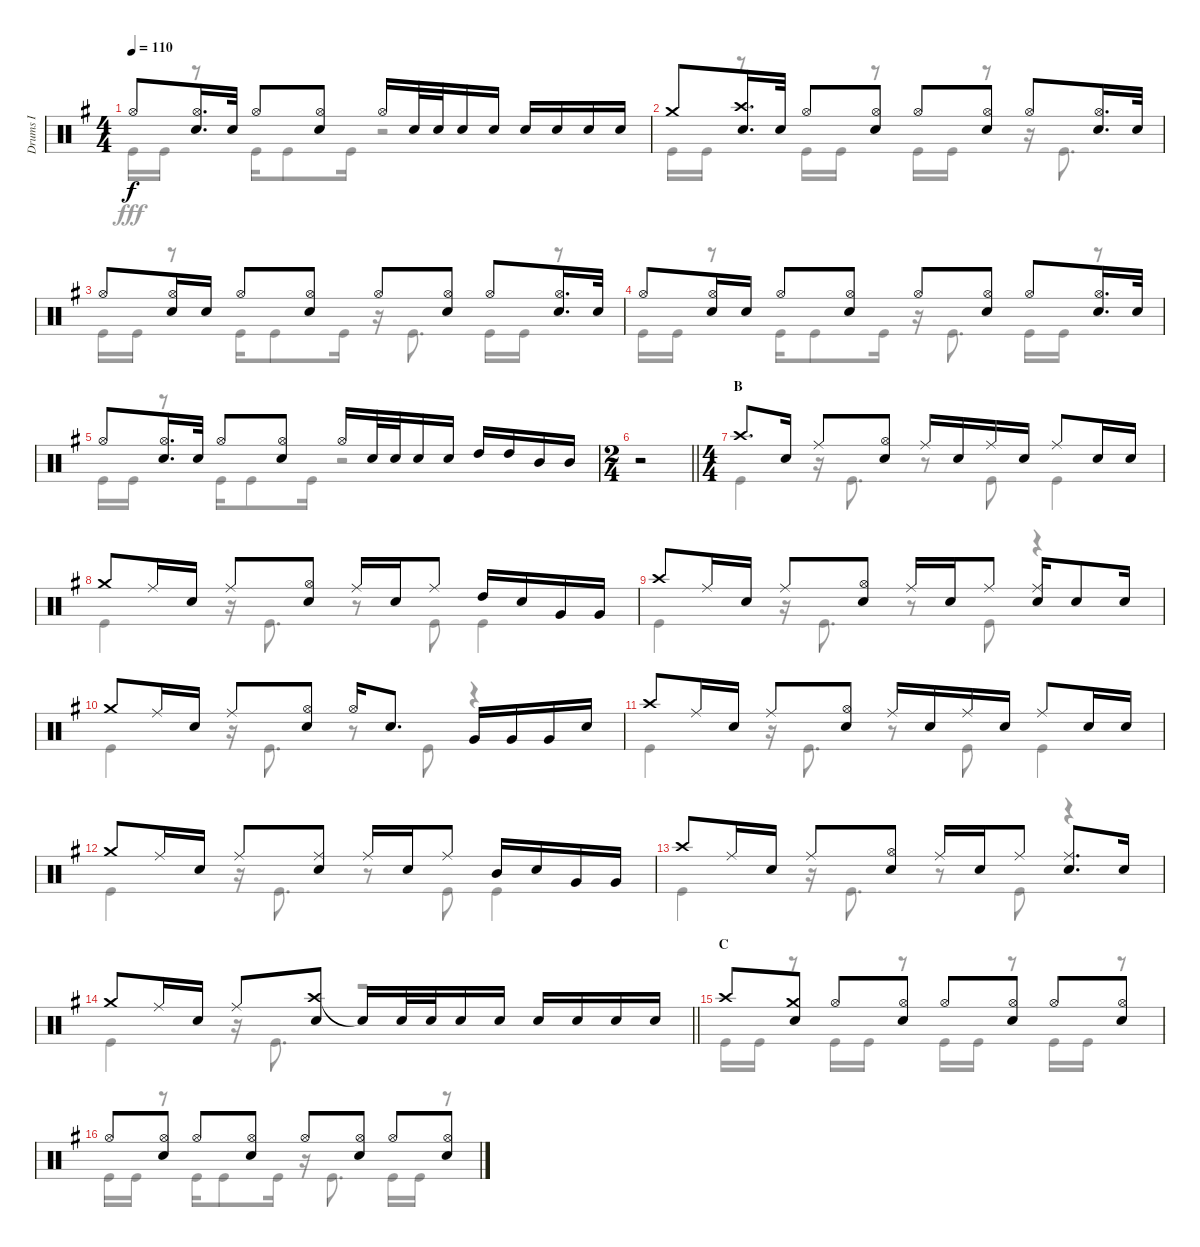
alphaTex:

\track ("Drums I" "Drums I") {instrument percussion}
\staff {score}
\articulation defaults
\voice
\ts (4 4)
\tempo 110
\clef neutral
\ks g "Hi-Hat (open)".8{dy f}
("Hi-Hat (open)" "Snare (hit) 2").16{d} "Snare (hit) 2".32 "Hi-Hat (open)".8 ("Hi-Hat (open)" "Snare (hit) 2").8 "Hi-Hat (open)".16 "Snare (hit) 2".32 "Snare (hit) 2".32 "Snare (hit) 2".16 "Snare (hit) 2".16 "Snare (hit) 2".16 "Snare (hit) 2".16 "Snare (hit) 2".16 "Snare (hit) 2".16 |
"Crash medium (hit)".8 ("Crash high (hit)" "Snare (hit) 2").16{d} "Snare (hit) 2".32 "Hi-Hat (open)".8 ("Hi-Hat (open)" "Snare (hit) 2").8 "Hi-Hat (open)".8 ("Hi-Hat (open)" "Snare (hit) 2").8 "Hi-Hat (open)".8 ("Hi-Hat (open)" "Snare (hit) 2").16{d} "Snare (hit) 2".32 |
"Hi-Hat (open)".8 ("Hi-Hat (open)" "Snare (hit) 2").16 "Snare (hit) 2".16 "Hi-Hat (open)".8 ("Hi-Hat (open)" "Snare (hit) 2").8 "Hi-Hat (open)".8 ("Hi-Hat (open)" "Snare (hit) 2").8 "Hi-Hat (open)".8 ("Hi-Hat (open)" "Snare (hit) 2").16{d} "Snare (hit) 2".32 |
"Hi-Hat (open)".8 ("Hi-Hat (open)" "Snare (hit) 2").16 "Snare (hit) 2".16 "Hi-Hat (open)".8 ("Hi-Hat (open)" "Snare (hit) 2").8 "Hi-Hat (open)".8 ("Hi-Hat (open)" "Snare (hit) 2").8 "Hi-Hat (open)".8 ("Hi-Hat (open)" "Snare (hit) 2").16{d} "Snare (hit) 2".32 |
"Hi-Hat (open)".8 ("Hi-Hat (open)" "Snare (hit) 2").16{d} "Snare (hit) 2".32 "Hi-Hat (open)".8 ("Hi-Hat (open)" "Snare (hit) 2").8 "Hi-Hat (open)".16 "Snare (hit) 2".32 "Snare (hit) 2".32 "Snare (hit) 2".16 "Snare (hit) 2".16 "High Tom (hit)".16 "High Tom (hit)".16 "Mid Tom (hit)".16 "Mid Tom (hit)".16 |
\ts (2 4)
\barLineRight lightlight
r.2 |
\ts (4 4)
\section ("" "B")
"Crash high (hit)".8{d} "Snare (hit) 2".16 "Ride (middle)".8 ("Hi-Hat (open)" "Snare (hit) 2").8 "Ride (middle)".16 "Snare (hit) 2".16 "Ride (middle)".16 "Snare (hit) 2".16 "Ride (middle)".8 "Snare (hit) 2".16 "Snare (hit) 2".16 |
"Crash medium (hit)".8 "Ride (middle)".16 "Snare (hit) 2".16 "Ride (middle)".8 ("Hi-Hat (open)" "Snare (hit) 2").8 "Ride (middle)".16 "Snare (hit) 2".16 "Ride (middle)".8 "High Tom (hit)".16 "Snare (hit) 2".16 "Very Low Tom (hit)".16 "Very Low Tom (hit)".16 |
"Crash high (hit)".8 "Ride (middle)".16 "Snare (hit) 2".16 "Ride (middle)".8 ("Hi-Hat (open)" "Snare (hit) 2").8 "Ride (middle)".16 "Snare (hit) 2".16 "Ride (middle)".8 ("Ride (middle)" "Snare (hit) 2").16 "Snare (hit) 2".8 "Snare (hit) 2".16 |
"Crash medium (hit)".8 "Ride (middle)".16 "Snare (hit) 2".16 "Ride (middle)".8 ("Hi-Hat (open)" "Snare (hit) 2").8 "Hi-Hat (open)".16 "Snare (hit) 2".8{d} "Very Low Tom (hit)".16 "Very Low Tom (hit)".16 "Very Low Tom (hit)".16 "Snare (hit) 2".16 |
"Crash high (hit)".8 "Ride (middle)".16 "Snare (hit) 2".16 "Ride (middle)".8 ("Hi-Hat (open)" "Snare (hit) 2").8 "Ride (middle)".16 "Snare (hit) 2".16 "Ride (middle)".16 "Snare (hit) 2".16 "Ride (middle)".8 "Snare (hit) 2".16 "Snare (hit) 2".16 |
"Crash medium (hit)".8 "Ride (middle)".16 "Snare (hit) 2".16 "Ride (middle)".8 ("Ride (middle)" "Snare (hit) 2").8 "Ride (middle)".16 "Snare (hit) 2".16 "Ride (middle)".8 "Mid Tom (hit)".16 "Snare (hit) 2".16 "Very Low Tom (hit)".16 "Very Low Tom (hit)".16 |
"Crash high (hit)".8 "Ride (middle)".16 "Snare (hit) 2".16 "Ride (middle)".8 ("Hi-Hat (open)" "Snare (hit) 2").8 "Ride (middle)".16 "Snare (hit) 2".16 "Ride (middle)".8 ("Ride (middle)" "Snare (hit) 2").8{d} "Snare (hit) 2".16 |
\barLineRight lightlight "Crash medium (hit)".8 "Ride (middle)".16 "Snare (hit) 2".16 "Ride (middle)".8
("Crash high (hit)" "Snare (hit) 2").8 "Snare (hit)"{t}.16 "Snare (hit) 2".32 "Snare (hit) 2".32 "Snare (hit) 2".16 "Snare (hit) 2".16 "Snare (hit) 2".16 "Snare (hit) 2".16 "Snare (hit) 2".16 "Snare (hit) 2".16 |
\section ("" "C")
"Crash high (hit)".8 ("Crash medium (hit)" "Snare (hit) 2").8 "Hi-Hat (open)".8 ("Hi-Hat (open)" "Snare (hit) 2").8 "Hi-Hat (open)".8 ("Hi-Hat (open)" "Snare (hit) 2").8 "Hi-Hat (open)".8 ("Hi-Hat (open)" "Snare (hit) 2").8 |
"Hi-Hat (open)".8 ("Hi-Hat (open)" "Snare (hit) 2").8 "Hi-Hat (open)".8 ("Hi-Hat (open)" "Snare (hit) 2").8 "Hi-Hat (open)".8 ("Hi-Hat (open)" "Snare (hit) 2").8 "Hi-Hat (open)".8 ("Hi-Hat (open)" "Snare (hit) 2").8
\voice
\clef neutral
\ottava regular
\simile none
\ks g "Kick (hit)".16{dy fff} "Kick (hit)".16
r.8 "Kick (hit)".16 "Kick (hit)".8 "Kick (hit)".16 r.2 |
"Kick (hit)".16 "Kick (hit)".16 r.8 "Kick (hit)".16 "Kick (hit)".16 r.8 "Kick (hit)".16 "Kick (hit)".16 r.8 r.16 "Kick (hit)".8{d} |
"Kick (hit)".16 "Kick (hit)".16 r.8 "Kick (hit)".16 "Kick (hit)".8 "Kick (hit)".16 r.16 "Kick (hit)".8{d} "Kick (hit)".16 "Kick (hit)".16 r.8 |
"Kick (hit)".16 "Kick (hit)".16 r.8 "Kick (hit)".16 "Kick (hit)".8 "Kick (hit)".16 r.16 "Kick (hit)".8{d} "Kick (hit)".16 "Kick (hit)".16 r.8 |
"Kick (hit)".16 "Kick (hit)".16 r.8 "Kick (hit)".16 "Kick (hit)".8 "Kick (hit)".16 r.2 |
\barLineRight lightlight
r.2 |
"Kick (hit)".4 r.16 "Kick (hit)".8{d} r.8 "Kick (hit)".8 "Kick (hit)".4 |
"Kick (hit)".4 r.16 "Kick (hit)".8{d} r.8 "Kick (hit)".8 "Kick (hit)".4 |
"Kick (hit)".4 r.16 "Kick (hit)".8{d} r.8 "Kick (hit)".8 r.4 |
"Kick (hit)".4 r.16 "Kick (hit)".8{d} r.8 "Kick (hit)".8 r.4 |
"Kick (hit)".4 r.16 "Kick (hit)".8{d} r.8 "Kick (hit)".8 "Kick (hit)".4 |
"Kick (hit)".4 r.16 "Kick (hit)".8{d} r.8 "Kick (hit)".8 "Kick (hit)".4 |
"Kick (hit)".4 r.16 "Kick (hit)".8{d} r.8 "Kick (hit)".8 r.4 |
\barLineRight lightlight "Kick (hit)".4
r.16 "Kick (hit)".8{d} r.2 |
"Kick (hit)".16 "Kick (hit)".16 r.8 "Kick (hit)".16 "Kick (hit)".16 r.8 "Kick (hit)".16 "Kick (hit)".16 r.8 "Kick (hit)".16 "Kick (hit)".16 r.8 |
"Kick (hit)".16 "Kick (hit)".16 r.8 "Kick (hit)".16 "Kick (hit)".8 "Kick (hit)".16 r.16 "Kick (hit)".8{d} "Kick (hit)".16 "Kick (hit)".16 r.8
